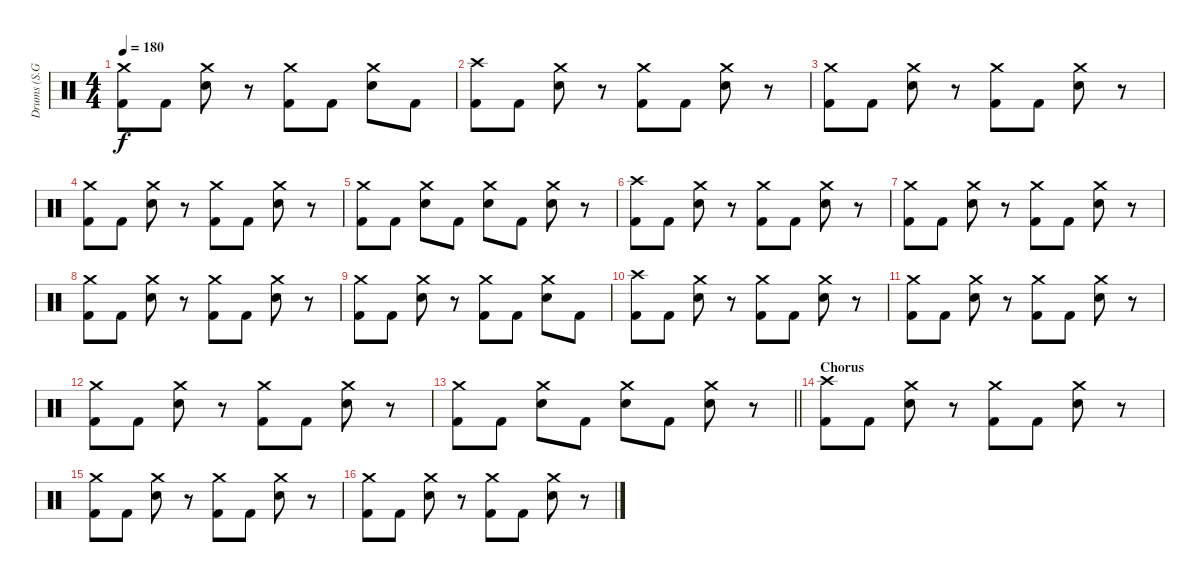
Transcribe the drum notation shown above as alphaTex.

\track ("Drums (S.G. Yim)" "Drums (S.G") {instrument percussion}
\staff {score}
\articulation defaults
\ts (4 4)
\tempo 180
\clef neutral
\ks c
("Crash medium (hit)" "Kick (hit) 2").8{dy f} "Kick (hit) 2".8 ("Crash medium (hit)" "Snare (hit) 2").8 r.8 ("Crash medium (hit)" "Kick (hit) 2").8 "Kick (hit) 2".8 ("Crash medium (hit)" "Snare (hit) 2").8 "Kick (hit) 2".8 |
("Crash high (hit)" "Kick (hit) 2").8 "Kick (hit) 2".8 ("Crash medium (hit)" "Snare (hit) 2").8 r.8 ("Crash medium (hit)" "Kick (hit) 2").8 "Kick (hit) 2".8 ("Crash medium (hit)" "Snare (hit) 2").8 r.8 |
("Crash medium (hit)" "Kick (hit) 2").8 "Kick (hit) 2".8 ("Crash medium (hit)" "Snare (hit) 2").8 r.8 ("Crash medium (hit)" "Kick (hit) 2").8 "Kick (hit) 2".8 ("Crash medium (hit)" "Snare (hit) 2").8 r.8 |
("Crash medium (hit)" "Kick (hit) 2").8 "Kick (hit) 2".8 ("Crash medium (hit)" "Snare (hit) 2").8 r.8 ("Crash medium (hit)" "Kick (hit) 2").8 "Kick (hit) 2".8 ("Crash medium (hit)" "Snare (hit) 2").8 r.8 |
("Crash medium (hit)" "Kick (hit) 2").8 "Kick (hit) 2".8 ("Crash medium (hit)" "Snare (hit) 2").8 "Kick (hit) 2".8 ("Crash medium (hit)" "Snare (hit) 2").8 "Kick (hit) 2".8 ("Crash medium (hit)" "Snare (hit) 2").8 r.8 |
("Crash high (hit)" "Kick (hit) 2").8 "Kick (hit) 2".8 ("Crash medium (hit)" "Snare (hit) 2").8 r.8 ("Crash medium (hit)" "Kick (hit) 2").8 "Kick (hit) 2".8 ("Crash medium (hit)" "Snare (hit) 2").8 r.8 |
("Crash medium (hit)" "Kick (hit) 2").8 "Kick (hit) 2".8 ("Crash medium (hit)" "Snare (hit) 2").8 r.8 ("Crash medium (hit)" "Kick (hit) 2").8 "Kick (hit) 2".8 ("Crash medium (hit)" "Snare (hit) 2").8 r.8 |
("Crash medium (hit)" "Kick (hit) 2").8 "Kick (hit) 2".8 ("Crash medium (hit)" "Snare (hit) 2").8 r.8 ("Crash medium (hit)" "Kick (hit) 2").8 "Kick (hit) 2".8 ("Crash medium (hit)" "Snare (hit) 2").8 r.8 |
("Crash medium (hit)" "Kick (hit) 2").8 "Kick (hit) 2".8 ("Crash medium (hit)" "Snare (hit) 2").8 r.8 ("Crash medium (hit)" "Kick (hit) 2").8 "Kick (hit) 2".8 ("Crash medium (hit)" "Snare (hit) 2").8 "Kick (hit) 2".8 |
("Crash high (hit)" "Kick (hit) 2").8 "Kick (hit) 2".8 ("Crash medium (hit)" "Snare (hit) 2").8 r.8 ("Crash medium (hit)" "Kick (hit) 2").8 "Kick (hit) 2".8 ("Crash medium (hit)" "Snare (hit) 2").8 r.8 |
("Crash medium (hit)" "Kick (hit) 2").8 "Kick (hit) 2".8 ("Crash medium (hit)" "Snare (hit) 2").8 r.8 ("Crash medium (hit)" "Kick (hit) 2").8 "Kick (hit) 2".8 ("Crash medium (hit)" "Snare (hit) 2").8 r.8 |
("Crash medium (hit)" "Kick (hit) 2").8 "Kick (hit) 2".8 ("Crash medium (hit)" "Snare (hit) 2").8 r.8 ("Crash medium (hit)" "Kick (hit) 2").8 "Kick (hit) 2".8 ("Crash medium (hit)" "Snare (hit) 2").8 r.8 |
\barLineRight lightlight
("Crash medium (hit)" "Kick (hit) 2").8 "Kick (hit) 2".8 ("Crash medium (hit)" "Snare (hit) 2").8 "Kick (hit) 2".8 ("Crash medium (hit)" "Snare (hit) 2").8 "Kick (hit) 2".8 ("Crash medium (hit)" "Snare (hit) 2").8 r.8 |
\section ("" "Chorus")
("Crash high (hit)" "Kick (hit) 2").8 "Kick (hit) 2".8 ("Crash medium (hit)" "Snare (hit) 2").8 r.8 ("Crash medium (hit)" "Kick (hit) 2").8 "Kick (hit) 2".8 ("Crash medium (hit)" "Snare (hit) 2").8 r.8 |
("Crash medium (hit)" "Kick (hit) 2").8 "Kick (hit) 2".8 ("Crash medium (hit)" "Snare (hit) 2").8 r.8 ("Crash medium (hit)" "Kick (hit) 2").8 "Kick (hit) 2".8 ("Crash medium (hit)" "Snare (hit) 2").8 r.8 |
("Crash medium (hit)" "Kick (hit) 2").8 "Kick (hit) 2".8 ("Crash medium (hit)" "Snare (hit) 2").8 r.8 ("Crash medium (hit)" "Kick (hit) 2").8 "Kick (hit) 2".8 ("Crash medium (hit)" "Snare (hit) 2").8 r.8
